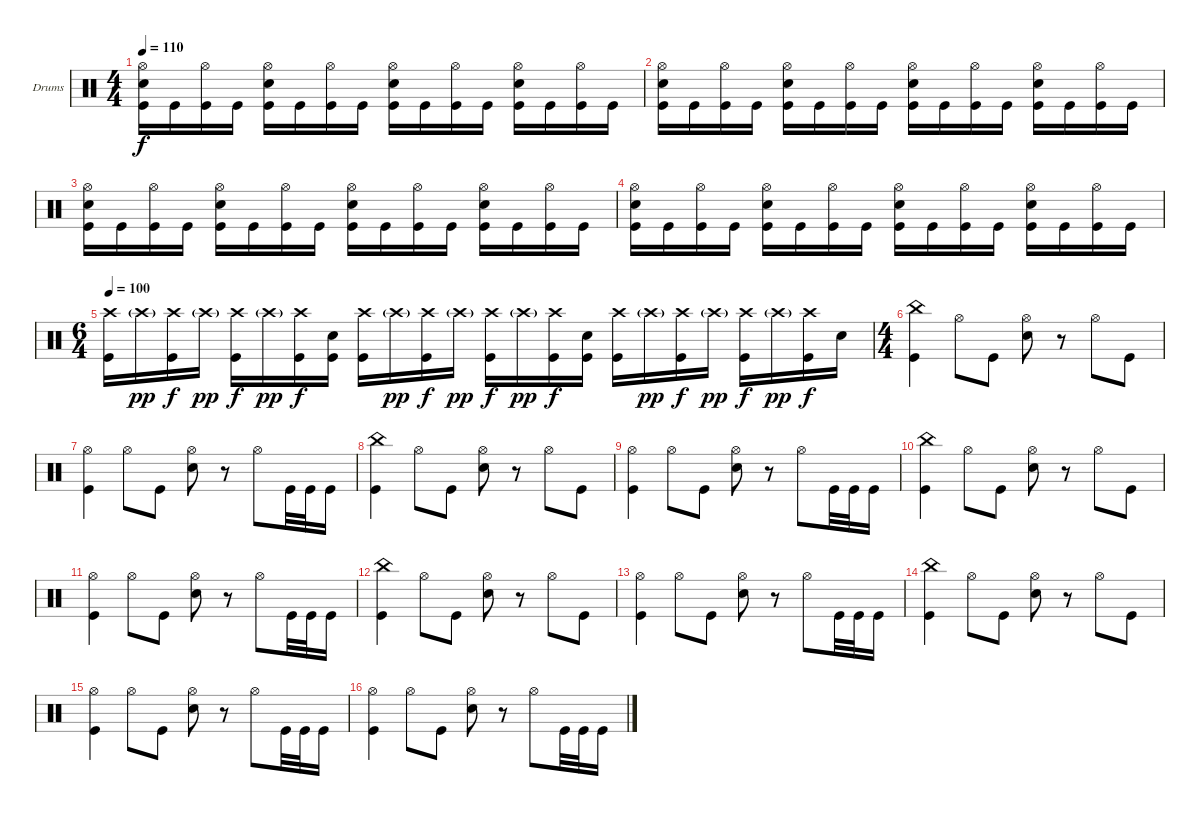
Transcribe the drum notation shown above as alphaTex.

\bracketExtendMode groupsimilarinstruments
\firstSystemTrackNameOrientation horizontal
\otherSystemsTrackNameOrientation horizontal
\track ("Drumkit" "Drums") {instrument percussion}
\staff {score}
\articulation defaults
\ts (4 4)
\tempo 110
\clef neutral
\ks c
("Hi-Hat (open)" "Snare (hit) 2" "Kick (hit)").16{dy f} "Kick (hit)".16 ("Hi-Hat (open)" "Kick (hit)").16 "Kick (hit)".16 ("Hi-Hat (open)" "Snare (hit) 2" "Kick (hit)").16 "Kick (hit)".16 ("Hi-Hat (open)" "Kick (hit)").16 "Kick (hit)".16 ("Hi-Hat (open)" "Snare (hit) 2" "Kick (hit)").16 "Kick (hit)".16 ("Hi-Hat (open)" "Kick (hit)").16 "Kick (hit)".16 ("Hi-Hat (open)" "Snare (hit) 2" "Kick (hit)").16 "Kick (hit)".16 ("Hi-Hat (open)" "Kick (hit)").16 "Kick (hit)".16 |
("Hi-Hat (open)" "Snare (hit) 2" "Kick (hit)").16 "Kick (hit)".16 ("Hi-Hat (open)" "Kick (hit)").16 "Kick (hit)".16 ("Hi-Hat (open)" "Snare (hit) 2" "Kick (hit)").16 "Kick (hit)".16 ("Hi-Hat (open)" "Kick (hit)").16 "Kick (hit)".16 ("Hi-Hat (open)" "Snare (hit) 2" "Kick (hit)").16 "Kick (hit)".16 ("Hi-Hat (open)" "Kick (hit)").16 "Kick (hit)".16 ("Hi-Hat (open)" "Snare (hit) 2" "Kick (hit)").16 "Kick (hit)".16 ("Hi-Hat (open)" "Kick (hit)").16 "Kick (hit)".16 |
("Hi-Hat (open)" "Snare (hit) 2" "Kick (hit)").16 "Kick (hit)".16 ("Hi-Hat (open)" "Kick (hit)").16 "Kick (hit)".16 ("Hi-Hat (open)" "Snare (hit) 2" "Kick (hit)").16 "Kick (hit)".16 ("Hi-Hat (open)" "Kick (hit)").16 "Kick (hit)".16 ("Hi-Hat (open)" "Snare (hit) 2" "Kick (hit)").16 "Kick (hit)".16 ("Hi-Hat (open)" "Kick (hit)").16 "Kick (hit)".16 ("Hi-Hat (open)" "Snare (hit) 2" "Kick (hit)").16 "Kick (hit)".16 ("Hi-Hat (open)" "Kick (hit)").16 "Kick (hit)".16 |
("Hi-Hat (open)" "Snare (hit) 2" "Kick (hit)").16 "Kick (hit)".16 ("Hi-Hat (open)" "Kick (hit)").16 "Kick (hit)".16 ("Hi-Hat (open)" "Snare (hit) 2" "Kick (hit)").16 "Kick (hit)".16 ("Hi-Hat (open)" "Kick (hit)").16 "Kick (hit)".16 ("Hi-Hat (open)" "Snare (hit) 2" "Kick (hit)").16 "Kick (hit)".16 ("Hi-Hat (open)" "Kick (hit)").16 "Kick (hit)".16 ("Hi-Hat (open)" "Snare (hit) 2" "Kick (hit)").16 "Kick (hit)".16 ("Hi-Hat (open)" "Kick (hit)").16 "Kick (hit)".16 |
\ts (6 4)
\tempo 100
("Crash high (hit)" "Kick (hit)").16 "Crash high (hit)"{g}.16{dy pp} ("Crash high (hit)" "Kick (hit)").16{dy f} "Crash high (hit)"{g}.16{dy pp} ("Crash high (hit)" "Kick (hit)").16{dy f} "Crash high (hit)"{g}.16{dy pp} ("Crash high (hit)" "Kick (hit)").16{dy f} ("Snare (hit) 2" "Kick (hit)").16 ("Crash high (hit)" "Kick (hit)").16 "Crash high (hit)"{g}.16{dy pp} ("Crash high (hit)" "Kick (hit)").16{dy f} "Crash high (hit)"{g}.16{dy pp} ("Crash high (hit)" "Kick (hit)").16{dy f} "Crash high (hit)"{g}.16{dy pp} ("Crash high (hit)" "Kick (hit)").16{dy f} ("Snare (hit) 2" "Kick (hit)").16 ("Crash high (hit)" "Kick (hit)").16 "Crash high (hit)"{g}.16{dy pp} ("Crash high (hit)" "Kick (hit)").16{dy f} "Crash high (hit)"{g}.16{dy pp} ("Crash high (hit)" "Kick (hit)").16{dy f} "Crash high (hit)"{g}.16{dy pp} ("Crash high (hit)" "Kick (hit)").16{dy f} "Snare (hit) 2".16 |
\ts (4 4)
("China (hit)" "Kick (hit)").4 "Hi-Hat (open)".8 "Kick (hit)".8 ("Hi-Hat (open)" "Snare (hit) 2").8 r.8 "Hi-Hat (open)".8 "Kick (hit)".8 |
("Hi-Hat (open)" "Kick (hit)").4 "Hi-Hat (open)".8 "Kick (hit)".8 ("Hi-Hat (open)" "Snare (hit) 2").8 r.8 "Hi-Hat (open)".8 "Kick (hit)".32 "Kick (hit)".32 "Kick (hit)".16 |
("China (hit)" "Kick (hit)").4 "Hi-Hat (open)".8 "Kick (hit)".8 ("Hi-Hat (open)" "Snare (hit) 2").8 r.8 "Hi-Hat (open)".8 "Kick (hit)".8 |
("Hi-Hat (open)" "Kick (hit)").4 "Hi-Hat (open)".8 "Kick (hit)".8 ("Hi-Hat (open)" "Snare (hit) 2").8 r.8 "Hi-Hat (open)".8 "Kick (hit)".32 "Kick (hit)".32 "Kick (hit)".16 |
("China (hit)" "Kick (hit)").4 "Hi-Hat (open)".8 "Kick (hit)".8 ("Hi-Hat (open)" "Snare (hit) 2").8 r.8 "Hi-Hat (open)".8 "Kick (hit)".8 |
("Hi-Hat (open)" "Kick (hit)").4 "Hi-Hat (open)".8 "Kick (hit)".8 ("Hi-Hat (open)" "Snare (hit) 2").8 r.8 "Hi-Hat (open)".8 "Kick (hit)".32 "Kick (hit)".32 "Kick (hit)".16 |
("China (hit)" "Kick (hit)").4 "Hi-Hat (open)".8 "Kick (hit)".8 ("Hi-Hat (open)" "Snare (hit) 2").8 r.8 "Hi-Hat (open)".8 "Kick (hit)".8 |
("Hi-Hat (open)" "Kick (hit)").4 "Hi-Hat (open)".8 "Kick (hit)".8 ("Hi-Hat (open)" "Snare (hit) 2").8 r.8 "Hi-Hat (open)".8 "Kick (hit)".32 "Kick (hit)".32 "Kick (hit)".16 |
("China (hit)" "Kick (hit)").4 "Hi-Hat (open)".8 "Kick (hit)".8 ("Hi-Hat (open)" "Snare (hit) 2").8 r.8 "Hi-Hat (open)".8 "Kick (hit)".8 |
("Hi-Hat (open)" "Kick (hit)").4 "Hi-Hat (open)".8 "Kick (hit)".8 ("Hi-Hat (open)" "Snare (hit) 2").8 r.8 "Hi-Hat (open)".8 "Kick (hit)".32 "Kick (hit)".32 "Kick (hit)".16 |
("Hi-Hat (open)" "Kick (hit)").4 "Hi-Hat (open)".8 "Kick (hit)".8 ("Hi-Hat (open)" "Snare (hit) 2").8 r.8 "Hi-Hat (open)".8 "Kick (hit)".32 "Kick (hit)".32 "Kick (hit)".16
